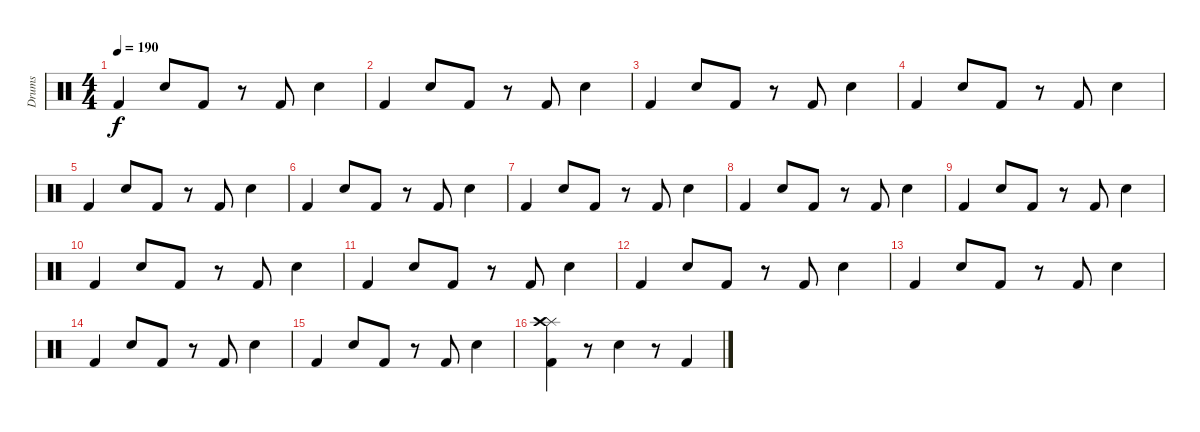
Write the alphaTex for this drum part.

\track ("Drums" "Drums") {instrument percussion}
\staff {score}
\articulation defaults
\ts (4 4)
\tempo 190
\clef neutral
\ks c "Kick (hit) 2".4{dy f} "Electric Snare (hit)".8 "Kick (hit) 2".8
r.8 "Kick (hit) 2".8 "Electric Snare (hit)".4 |
"Kick (hit) 2".4 "Electric Snare (hit)".8 "Kick (hit) 2".8 r.8 "Kick (hit) 2".8 "Electric Snare (hit)".4 |
"Kick (hit) 2".4 "Electric Snare (hit)".8 "Kick (hit) 2".8 r.8 "Kick (hit) 2".8 "Electric Snare (hit)".4 |
"Kick (hit) 2".4 "Electric Snare (hit)".8 "Kick (hit) 2".8 r.8 "Kick (hit) 2".8 "Electric Snare (hit)".4 |
"Kick (hit) 2".4 "Electric Snare (hit)".8 "Kick (hit) 2".8 r.8 "Kick (hit) 2".8 "Electric Snare (hit)".4 |
"Kick (hit) 2".4 "Electric Snare (hit)".8 "Kick (hit) 2".8 r.8 "Kick (hit) 2".8 "Electric Snare (hit)".4 |
"Kick (hit) 2".4 "Electric Snare (hit)".8 "Kick (hit) 2".8 r.8 "Kick (hit) 2".8 "Electric Snare (hit)".4 |
"Kick (hit) 2".4 "Electric Snare (hit)".8 "Kick (hit) 2".8 r.8 "Kick (hit) 2".8 "Electric Snare (hit)".4 |
"Kick (hit) 2".4 "Electric Snare (hit)".8 "Kick (hit) 2".8 r.8 "Kick (hit) 2".8 "Electric Snare (hit)".4 |
"Kick (hit) 2".4 "Electric Snare (hit)".8 "Kick (hit) 2".8 r.8 "Kick (hit) 2".8 "Electric Snare (hit)".4 |
"Kick (hit) 2".4 "Electric Snare (hit)".8 "Kick (hit) 2".8 r.8 "Kick (hit) 2".8 "Electric Snare (hit)".4 |
"Kick (hit) 2".4 "Electric Snare (hit)".8 "Kick (hit) 2".8 r.8 "Kick (hit) 2".8 "Electric Snare (hit)".4 |
"Kick (hit) 2".4 "Electric Snare (hit)".8 "Kick (hit) 2".8 r.8 "Kick (hit) 2".8 "Electric Snare (hit)".4 |
"Kick (hit) 2".4 "Electric Snare (hit)".8 "Kick (hit) 2".8 r.8 "Kick (hit) 2".8 "Electric Snare (hit)".4 |
"Kick (hit) 2".4 "Electric Snare (hit)".8 "Kick (hit) 2".8 r.8 "Kick (hit) 2".8 "Electric Snare (hit)".4 |
("Splash (hit)" "Crash high (hit)" "Kick (hit) 2").4 r.8 "Electric Snare (hit)".4 r.8 "Kick (hit) 2".4
